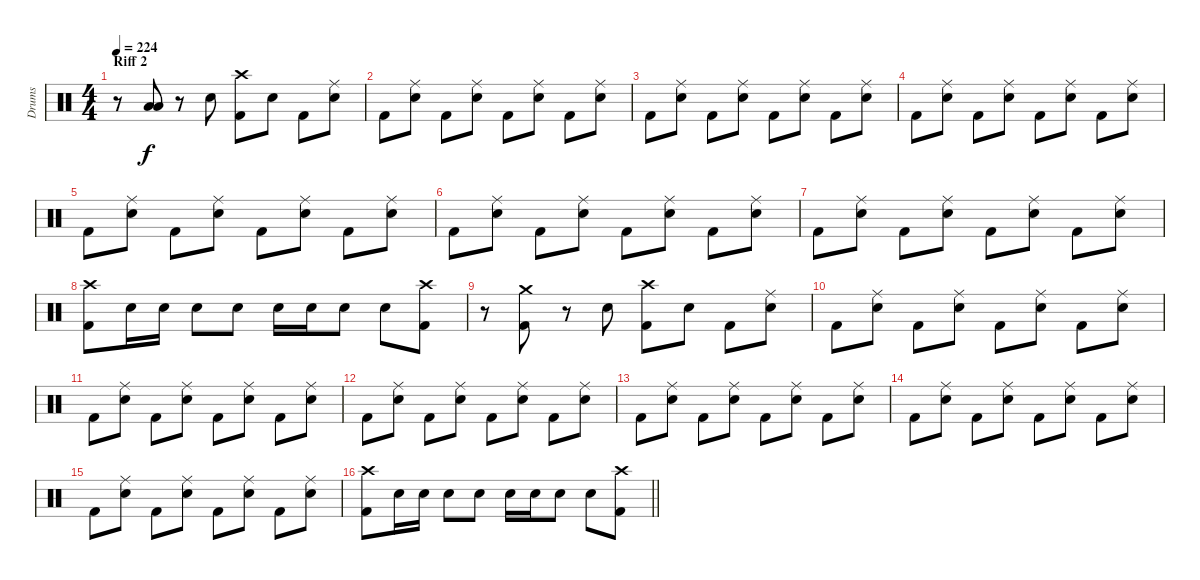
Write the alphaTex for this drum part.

\track ("Drums" "Drums") {instrument percussion}
\staff {score}
\articulation defaults
\ts (4 4)
\section ("" "Riff 2")
\tempo 224
\clef neutral
\ks c
r.8{dy f} ("Low Floor Tom (hit)" "Low Tom (hit)").8 r.8 "Electric Snare (hit)".8 ("Kick (hit) 2" "Crash high (hit)").8 "Electric Snare (hit)".8 "Kick (hit) 2".8 ("Electric Snare (hit)" "Ride (middle)").8 |
"Kick (hit) 2".8 ("Electric Snare (hit)" "Ride (middle)").8 "Kick (hit) 2".8 ("Electric Snare (hit)" "Ride (middle)").8 "Kick (hit) 2".8 ("Electric Snare (hit)" "Ride (middle)").8 "Kick (hit) 2".8 ("Electric Snare (hit)" "Ride (middle)").8 |
"Kick (hit) 2".8 ("Electric Snare (hit)" "Ride (middle)").8 "Kick (hit) 2".8 ("Electric Snare (hit)" "Ride (middle)").8 "Kick (hit) 2".8 ("Electric Snare (hit)" "Ride (middle)").8 "Kick (hit) 2".8 ("Electric Snare (hit)" "Ride (middle)").8 |
"Kick (hit) 2".8 ("Electric Snare (hit)" "Ride (middle)").8 "Kick (hit) 2".8 ("Electric Snare (hit)" "Ride (middle)").8 "Kick (hit) 2".8 ("Electric Snare (hit)" "Ride (middle)").8 "Kick (hit) 2".8 ("Electric Snare (hit)" "Ride (middle)").8 |
"Kick (hit) 2".8 ("Electric Snare (hit)" "Ride (middle)").8 "Kick (hit) 2".8 ("Electric Snare (hit)" "Ride (middle)").8 "Kick (hit) 2".8 ("Electric Snare (hit)" "Ride (middle)").8 "Kick (hit) 2".8 ("Electric Snare (hit)" "Ride (middle)").8 |
"Kick (hit) 2".8 ("Electric Snare (hit)" "Ride (middle)").8 "Kick (hit) 2".8 ("Electric Snare (hit)" "Ride (middle)").8 "Kick (hit) 2".8 ("Electric Snare (hit)" "Ride (middle)").8 "Kick (hit) 2".8 ("Electric Snare (hit)" "Ride (middle)").8 |
"Kick (hit) 2".8 ("Electric Snare (hit)" "Ride (middle)").8 "Kick (hit) 2".8 ("Electric Snare (hit)" "Ride (middle)").8 "Kick (hit) 2".8 ("Electric Snare (hit)" "Ride (middle)").8 "Kick (hit) 2".8 ("Electric Snare (hit)" "Ride (middle)").8 |
("Crash high (hit)" "Kick (hit) 2").8 "Electric Snare (hit)".16 "Electric Snare (hit)".16 "Electric Snare (hit)".8 "Electric Snare (hit)".8 "Electric Snare (hit)".16 "Electric Snare (hit)".16 "Electric Snare (hit)".8 "Electric Snare (hit)".8 ("Kick (hit) 2" "Crash high (hit)").8 |
r.8 ("Kick (hit) 2" "Crash medium (hit)").8 r.8 "Electric Snare (hit)".8 ("Kick (hit) 2" "Crash high (hit)").8 "Electric Snare (hit)".8 "Kick (hit) 2".8 ("Electric Snare (hit)" "Ride (middle)").8 |
"Kick (hit) 2".8 ("Electric Snare (hit)" "Ride (middle)").8 "Kick (hit) 2".8 ("Electric Snare (hit)" "Ride (middle)").8 "Kick (hit) 2".8 ("Electric Snare (hit)" "Ride (middle)").8 "Kick (hit) 2".8 ("Electric Snare (hit)" "Ride (middle)").8 |
"Kick (hit) 2".8 ("Electric Snare (hit)" "Ride (middle)").8 "Kick (hit) 2".8 ("Electric Snare (hit)" "Ride (middle)").8 "Kick (hit) 2".8 ("Electric Snare (hit)" "Ride (middle)").8 "Kick (hit) 2".8 ("Electric Snare (hit)" "Ride (middle)").8 |
"Kick (hit) 2".8 ("Electric Snare (hit)" "Ride (middle)").8 "Kick (hit) 2".8 ("Electric Snare (hit)" "Ride (middle)").8 "Kick (hit) 2".8 ("Electric Snare (hit)" "Ride (middle)").8 "Kick (hit) 2".8 ("Electric Snare (hit)" "Ride (middle)").8 |
"Kick (hit) 2".8 ("Electric Snare (hit)" "Ride (middle)").8 "Kick (hit) 2".8 ("Electric Snare (hit)" "Ride (middle)").8 "Kick (hit) 2".8 ("Electric Snare (hit)" "Ride (middle)").8 "Kick (hit) 2".8 ("Electric Snare (hit)" "Ride (middle)").8 |
"Kick (hit) 2".8 ("Electric Snare (hit)" "Ride (middle)").8 "Kick (hit) 2".8 ("Electric Snare (hit)" "Ride (middle)").8 "Kick (hit) 2".8 ("Electric Snare (hit)" "Ride (middle)").8 "Kick (hit) 2".8 ("Electric Snare (hit)" "Ride (middle)").8 |
"Kick (hit) 2".8 ("Electric Snare (hit)" "Ride (middle)").8 "Kick (hit) 2".8 ("Electric Snare (hit)" "Ride (middle)").8 "Kick (hit) 2".8 ("Electric Snare (hit)" "Ride (middle)").8 "Kick (hit) 2".8 ("Electric Snare (hit)" "Ride (middle)").8 |
\barLineRight lightlight
("Crash high (hit)" "Kick (hit) 2").8 "Electric Snare (hit)".16 "Electric Snare (hit)".16 "Electric Snare (hit)".8 "Electric Snare (hit)".8 "Electric Snare (hit)".16 "Electric Snare (hit)".16 "Electric Snare (hit)".8 "Electric Snare (hit)".8 ("Kick (hit) 2" "Crash high (hit)").8
